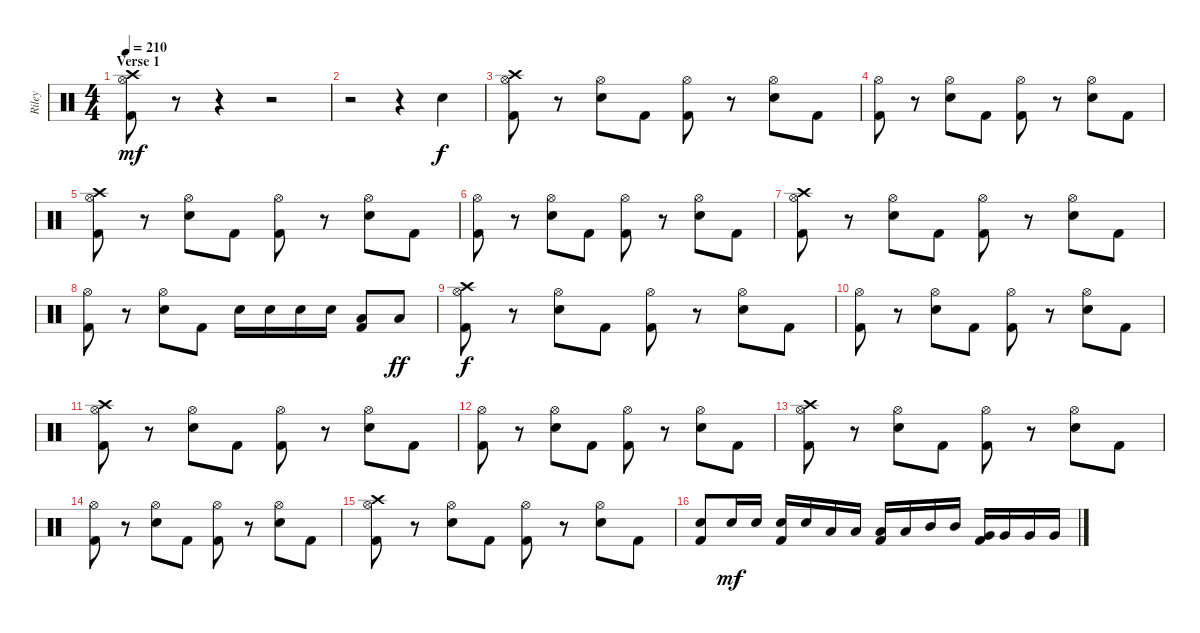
\track ("Riley" "Riley") {instrument percussion}
\staff {score}
\articulation defaults
\ts (4 4)
\section ("" "Verse 1")
\tempo 210
\clef neutral
\ks c
("Crash high (hit)" "Hi-Hat (open)" "Kick (hit) 2").8{dy mf} r.8 r.4 r.2 |
r.2 r.4 "Electric Snare (hit)".4{dy f} |
("Crash high (hit)" "Hi-Hat (open)" "Kick (hit) 2").8 r.8 ("Hi-Hat (open)" "Electric Snare (hit)").8 "Kick (hit) 2".8 ("Hi-Hat (open)" "Kick (hit) 2").8 r.8 ("Hi-Hat (open)" "Electric Snare (hit)").8 "Kick (hit) 2".8 |
("Hi-Hat (open)" "Kick (hit) 2").8 r.8 ("Hi-Hat (open)" "Electric Snare (hit)").8 "Kick (hit) 2".8 ("Hi-Hat (open)" "Kick (hit) 2").8 r.8 ("Hi-Hat (open)" "Electric Snare (hit)").8 "Kick (hit) 2".8 |
("Crash high (hit)" "Hi-Hat (open)" "Kick (hit) 2").8 r.8 ("Hi-Hat (open)" "Electric Snare (hit)").8 "Kick (hit) 2".8 ("Hi-Hat (open)" "Kick (hit) 2").8 r.8 ("Hi-Hat (open)" "Electric Snare (hit)").8 "Kick (hit) 2".8 |
("Hi-Hat (open)" "Kick (hit) 2").8 r.8 ("Hi-Hat (open)" "Electric Snare (hit)").8 "Kick (hit) 2".8 ("Hi-Hat (open)" "Kick (hit) 2").8 r.8 ("Hi-Hat (open)" "Electric Snare (hit)").8 "Kick (hit) 2".8 |
("Crash high (hit)" "Hi-Hat (open)" "Kick (hit) 2").8 r.8 ("Hi-Hat (open)" "Electric Snare (hit)").8 "Kick (hit) 2".8 ("Hi-Hat (open)" "Kick (hit) 2").8 r.8 ("Hi-Hat (open)" "Electric Snare (hit)").8 "Kick (hit) 2".8 |
("Hi-Hat (open)" "Kick (hit) 2").8 r.8 ("Hi-Hat (open)" "Electric Snare (hit)").8 "Kick (hit) 2".8 "Electric Snare (hit)".16 "Electric Snare (hit)".16 "Electric Snare (hit)".16 "Electric Snare (hit)".16 ("Low Tom (hit)" "Kick (hit) 2").8 "Low Tom (hit)".8{dy ff} |
("Crash high (hit)" "Hi-Hat (open)" "Kick (hit) 2").8{dy f} r.8 ("Hi-Hat (open)" "Electric Snare (hit)").8 "Kick (hit) 2".8 ("Hi-Hat (open)" "Kick (hit) 2").8 r.8 ("Hi-Hat (open)" "Electric Snare (hit)").8 "Kick (hit) 2".8 |
("Hi-Hat (open)" "Kick (hit) 2").8 r.8 ("Hi-Hat (open)" "Electric Snare (hit)").8 "Kick (hit) 2".8 ("Hi-Hat (open)" "Kick (hit) 2").8 r.8 ("Hi-Hat (open)" "Electric Snare (hit)").8 "Kick (hit) 2".8 |
("Crash high (hit)" "Hi-Hat (open)" "Kick (hit) 2").8 r.8 ("Hi-Hat (open)" "Electric Snare (hit)").8 "Kick (hit) 2".8 ("Hi-Hat (open)" "Kick (hit) 2").8 r.8 ("Hi-Hat (open)" "Electric Snare (hit)").8 "Kick (hit) 2".8 |
("Hi-Hat (open)" "Kick (hit) 2").8 r.8 ("Hi-Hat (open)" "Electric Snare (hit)").8 "Kick (hit) 2".8 ("Hi-Hat (open)" "Kick (hit) 2").8 r.8 ("Hi-Hat (open)" "Electric Snare (hit)").8 "Kick (hit) 2".8 |
("Crash high (hit)" "Hi-Hat (open)" "Kick (hit) 2").8 r.8 ("Hi-Hat (open)" "Electric Snare (hit)").8 "Kick (hit) 2".8 ("Hi-Hat (open)" "Kick (hit) 2").8 r.8 ("Hi-Hat (open)" "Electric Snare (hit)").8 "Kick (hit) 2".8 |
("Hi-Hat (open)" "Kick (hit) 2").8 r.8 ("Hi-Hat (open)" "Electric Snare (hit)").8 "Kick (hit) 2".8 ("Hi-Hat (open)" "Kick (hit) 2").8 r.8 ("Hi-Hat (open)" "Electric Snare (hit)").8 "Kick (hit) 2".8 |
("Crash high (hit)" "Hi-Hat (open)" "Kick (hit) 2").8 r.8 ("Hi-Hat (open)" "Electric Snare (hit)").8 "Kick (hit) 2".8 ("Hi-Hat (open)" "Kick (hit) 2").8 r.8 ("Hi-Hat (open)" "Electric Snare (hit)").8 "Kick (hit) 2".8 |
("Electric Snare (hit)" "Kick (hit) 2").8 "Electric Snare (hit)".16{dy mf} "Electric Snare (hit)".16 ("Electric Snare (hit)" "Kick (hit) 2").16 "Electric Snare (hit)".16 "Low Tom (hit)".16 "Low Tom (hit)".16 ("Low Tom (hit)" "Kick (hit) 2").16 "Low Tom (hit)".16 "Mid Tom (hit)".16 "Mid Tom (hit)".16 ("Very Low Tom (hit)" "Kick (hit) 2").16 "Very Low Tom (hit)".16 "Very Low Tom (hit)".16 "Very Low Tom (hit)".16
